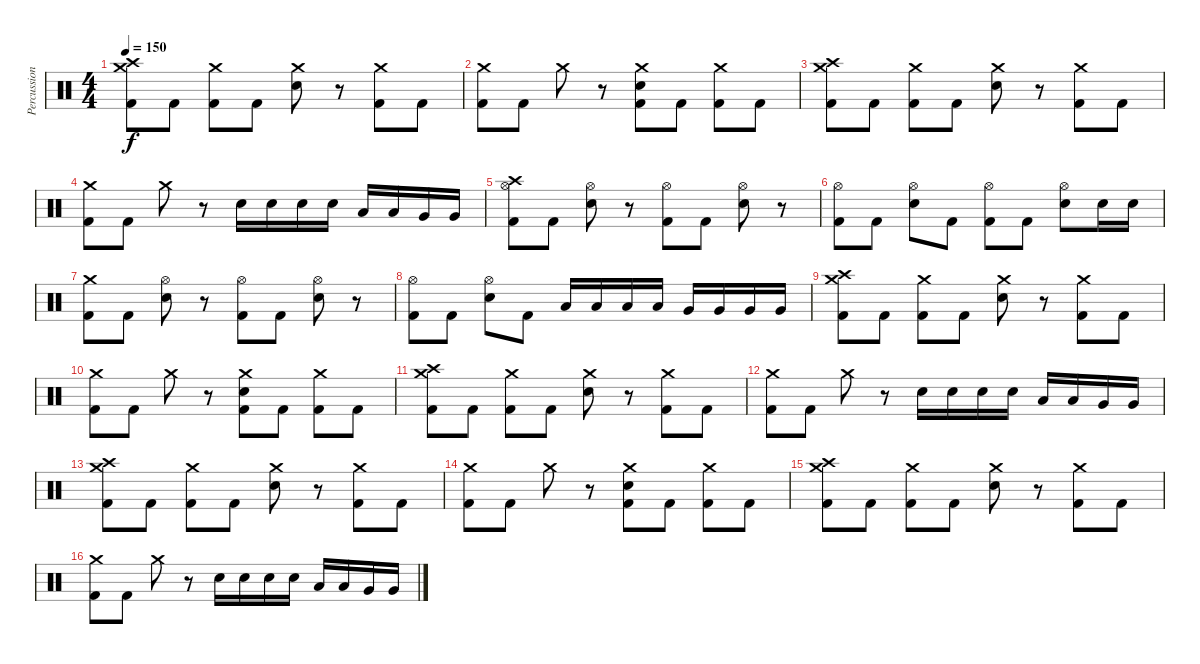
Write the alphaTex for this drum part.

\track ("Percussion" "Percussion") {instrument percussion}
\staff {score}
\articulation defaults
\ts (4 4)
\tempo 150
\clef neutral
\ks c
("Crash medium (hit)" "Crash high (hit)" "Kick (hit) 2").8{dy f} "Kick (hit) 2".8 ("Crash medium (hit)" "Kick (hit) 2").8 "Kick (hit) 2".8 ("Crash medium (hit)" "Electric Snare (hit)").8 r.8 ("Crash medium (hit)" "Kick (hit) 2").8 "Kick (hit) 2".8 |
("Crash medium (hit)" "Kick (hit) 2").8 "Kick (hit) 2".8 "Crash medium (hit)".8 r.8 ("Crash medium (hit)" "Electric Snare (hit)" "Kick (hit) 2").8 "Kick (hit) 2".8 ("Crash medium (hit)" "Kick (hit) 2").8 "Kick (hit) 2".8 |
("Crash medium (hit)" "Crash high (hit)" "Kick (hit) 2").8 "Kick (hit) 2".8 ("Crash medium (hit)" "Kick (hit) 2").8 "Kick (hit) 2".8 ("Crash medium (hit)" "Electric Snare (hit)").8 r.8 ("Crash medium (hit)" "Kick (hit) 2").8 "Kick (hit) 2".8 |
("Crash medium (hit)" "Kick (hit) 2").8 "Kick (hit) 2".8 "Crash medium (hit)".8 r.8 "Electric Snare (hit)".16 "Electric Snare (hit)".16 "Electric Snare (hit)".16 "Electric Snare (hit)".16 "Low Tom (hit)".16 "Low Tom (hit)".16 "Very Low Tom (hit)".16 "Very Low Tom (hit)".16 |
("Crash high (hit)" "Hi-Hat (open)" "Kick (hit) 2").8 "Kick (hit) 2".8 ("Hi-Hat (open)" "Electric Snare (hit)").8 r.8 ("Hi-Hat (open)" "Kick (hit) 2").8 "Kick (hit) 2".8 ("Hi-Hat (open)" "Electric Snare (hit)").8 r.8 |
("Hi-Hat (open)" "Kick (hit) 2").8 "Kick (hit) 2".8 ("Hi-Hat (open)" "Electric Snare (hit)").8 "Kick (hit) 2".8 ("Hi-Hat (open)" "Kick (hit) 2").8 "Kick (hit) 2".8 ("Hi-Hat (open)" "Electric Snare (hit)").8 "Electric Snare (hit)".16 "Electric Snare (hit)".16 |
("Crash medium (hit)" "Kick (hit) 2").8 "Kick (hit) 2".8 ("Hi-Hat (open)" "Electric Snare (hit)").8 r.8 ("Hi-Hat (open)" "Kick (hit) 2").8 "Kick (hit) 2".8 ("Hi-Hat (open)" "Electric Snare (hit)").8 r.8 |
("Hi-Hat (open)" "Kick (hit) 2").8 "Kick (hit) 2".8 ("Hi-Hat (open)" "Electric Snare (hit)").8 "Kick (hit) 2".8 "Low Tom (hit)".16 "Low Tom (hit)".16 "Low Tom (hit)".16 "Low Tom (hit)".16 "Very Low Tom (hit)".16 "Very Low Tom (hit)".16 "Very Low Tom (hit)".16 "Very Low Tom (hit)".16 |
("Crash medium (hit)" "Crash high (hit)" "Kick (hit) 2").8 "Kick (hit) 2".8 ("Crash medium (hit)" "Kick (hit) 2").8 "Kick (hit) 2".8 ("Crash medium (hit)" "Electric Snare (hit)").8 r.8 ("Crash medium (hit)" "Kick (hit) 2").8 "Kick (hit) 2".8 |
("Crash medium (hit)" "Kick (hit) 2").8 "Kick (hit) 2".8 "Crash medium (hit)".8 r.8 ("Crash medium (hit)" "Electric Snare (hit)" "Kick (hit) 2").8 "Kick (hit) 2".8 ("Crash medium (hit)" "Kick (hit) 2").8 "Kick (hit) 2".8 |
("Crash medium (hit)" "Crash high (hit)" "Kick (hit) 2").8 "Kick (hit) 2".8 ("Crash medium (hit)" "Kick (hit) 2").8 "Kick (hit) 2".8 ("Crash medium (hit)" "Electric Snare (hit)").8 r.8 ("Crash medium (hit)" "Kick (hit) 2").8 "Kick (hit) 2".8 |
("Crash medium (hit)" "Kick (hit) 2").8 "Kick (hit) 2".8 "Crash medium (hit)".8 r.8 "Electric Snare (hit)".16 "Electric Snare (hit)".16 "Electric Snare (hit)".16 "Electric Snare (hit)".16 "Low Tom (hit)".16 "Low Tom (hit)".16 "Very Low Tom (hit)".16 "Very Low Tom (hit)".16 |
("Crash medium (hit)" "Crash high (hit)" "Kick (hit) 2").8 "Kick (hit) 2".8 ("Crash medium (hit)" "Kick (hit) 2").8 "Kick (hit) 2".8 ("Crash medium (hit)" "Electric Snare (hit)").8 r.8 ("Crash medium (hit)" "Kick (hit) 2").8 "Kick (hit) 2".8 |
("Crash medium (hit)" "Kick (hit) 2").8 "Kick (hit) 2".8 "Crash medium (hit)".8 r.8 ("Crash medium (hit)" "Electric Snare (hit)" "Kick (hit) 2").8 "Kick (hit) 2".8 ("Crash medium (hit)" "Kick (hit) 2").8 "Kick (hit) 2".8 |
("Crash medium (hit)" "Crash high (hit)" "Kick (hit) 2").8 "Kick (hit) 2".8 ("Crash medium (hit)" "Kick (hit) 2").8 "Kick (hit) 2".8 ("Crash medium (hit)" "Electric Snare (hit)").8 r.8 ("Crash medium (hit)" "Kick (hit) 2").8 "Kick (hit) 2".8 |
("Crash medium (hit)" "Kick (hit) 2").8 "Kick (hit) 2".8 "Crash medium (hit)".8 r.8 "Electric Snare (hit)".16 "Electric Snare (hit)".16 "Electric Snare (hit)".16 "Electric Snare (hit)".16 "Low Tom (hit)".16 "Low Tom (hit)".16 "Very Low Tom (hit)".16 "Very Low Tom (hit)".16
